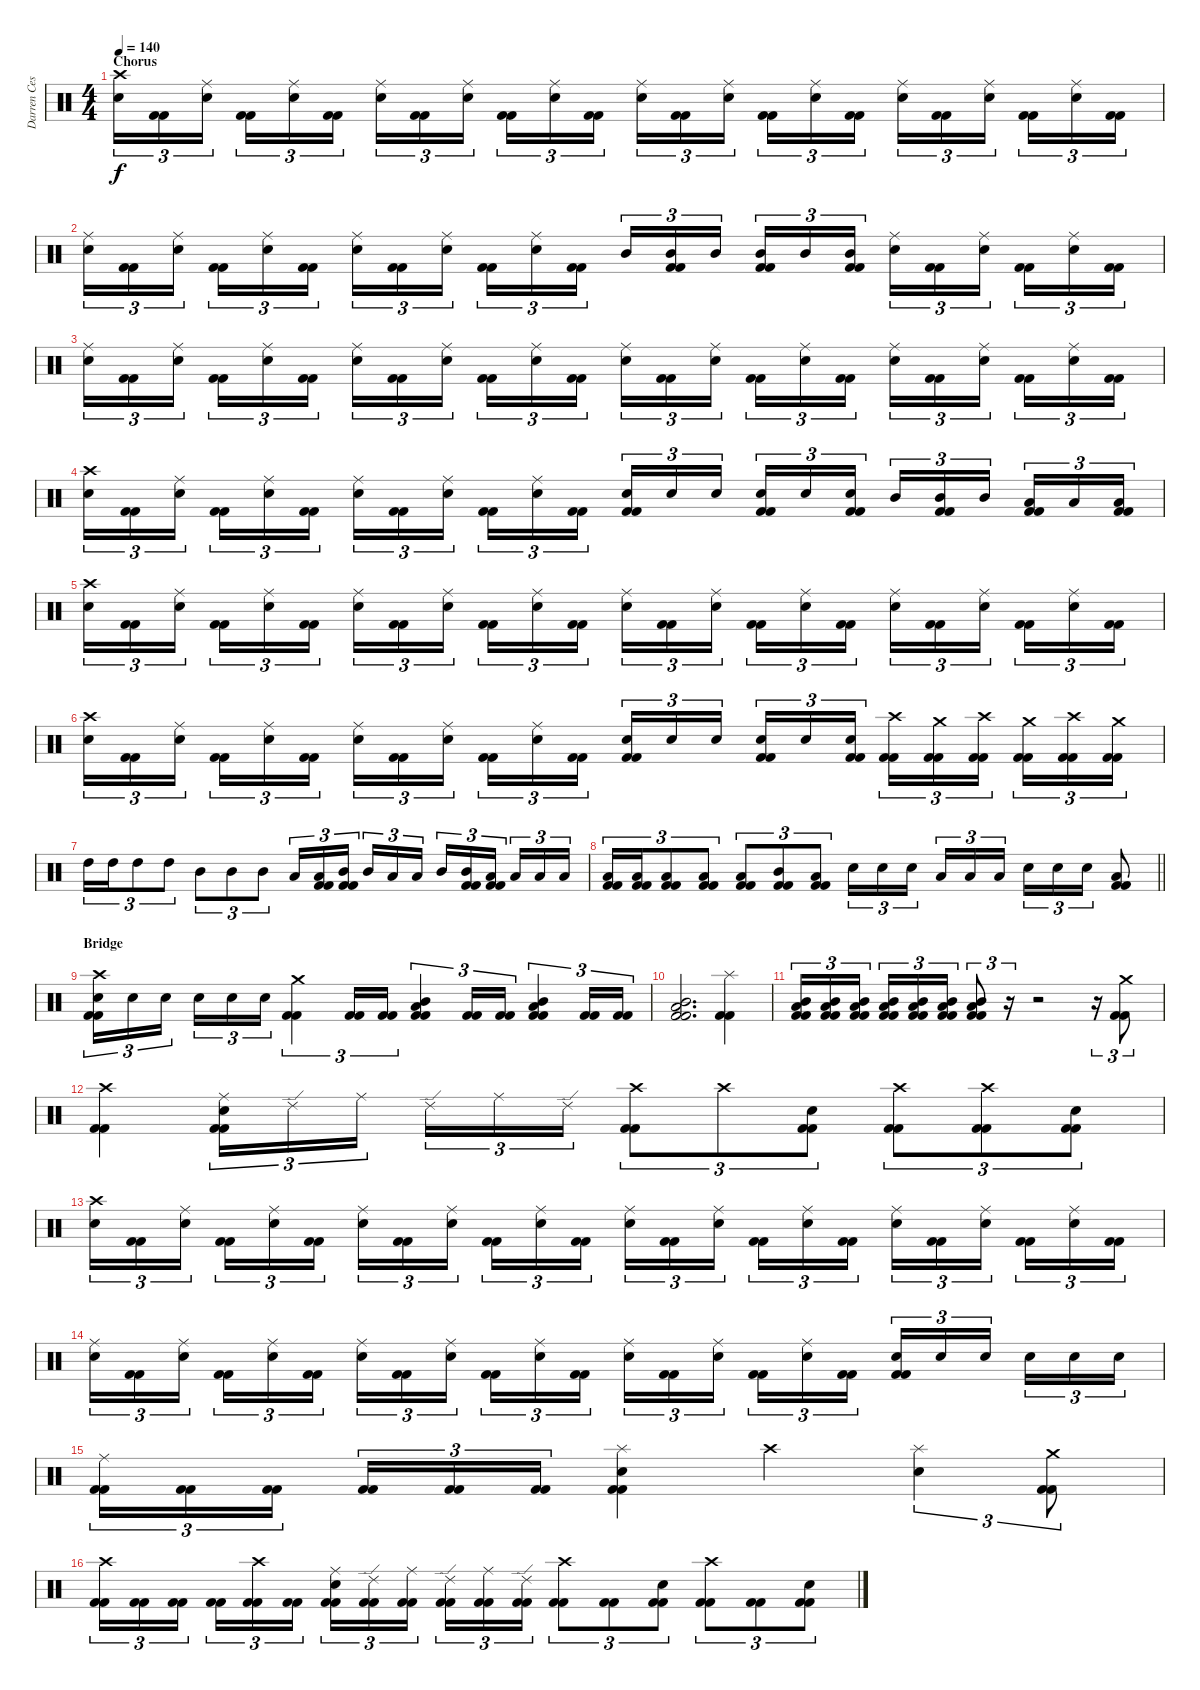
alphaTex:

\track ("Darren Cesca" "Darren Ces") {instrument percussion}
\staff {score}
\articulation defaults
\ts (4 4)
\section ("" "Chorus")
\tempo 140
\clef neutral
\ks c
("Crash high (hit)" "Electric Snare (hit)").16{tu (3 2) dy f} ("Kick (hit) 2" "Kick (hit) 2").16{tu (3 2)} ("Ride (middle)" "Electric Snare (hit)").16{tu (3 2) beam splitsecondary} ("Kick (hit) 2" "Kick (hit) 2").16{tu (3 2)} ("Ride (middle)" "Electric Snare (hit)").16{tu (3 2)} ("Kick (hit) 2" "Kick (hit) 2").16{tu (3 2)} ("Ride (middle)" "Electric Snare (hit)").16{tu (3 2)} ("Kick (hit) 2" "Kick (hit) 2").16{tu (3 2)} ("Ride (middle)" "Electric Snare (hit)").16{tu (3 2) beam splitsecondary} ("Kick (hit) 2" "Kick (hit) 2").16{tu (3 2)} ("Ride (middle)" "Electric Snare (hit)").16{tu (3 2)} ("Kick (hit) 2" "Kick (hit) 2").16{tu (3 2)} ("Ride (middle)" "Electric Snare (hit)").16{tu (3 2)} ("Kick (hit) 2" "Kick (hit) 2").16{tu (3 2)} ("Ride (middle)" "Electric Snare (hit)").16{tu (3 2) beam splitsecondary} ("Kick (hit) 2" "Kick (hit) 2").16{tu (3 2)} ("Ride (middle)" "Electric Snare (hit)").16{tu (3 2)} ("Kick (hit) 2" "Kick (hit) 2").16{tu (3 2)} ("Ride (middle)" "Electric Snare (hit)").16{tu (3 2)} ("Kick (hit) 2" "Kick (hit) 2").16{tu (3 2)} ("Ride (middle)" "Electric Snare (hit)").16{tu (3 2) beam splitsecondary} ("Kick (hit) 2" "Kick (hit) 2").16{tu (3 2)} ("Ride (middle)" "Electric Snare (hit)").16{tu (3 2)} ("Kick (hit) 2" "Kick (hit) 2").16{tu (3 2)} |
("Ride (middle)" "Electric Snare (hit)").16{tu (3 2)} ("Kick (hit) 2" "Kick (hit) 2").16{tu (3 2)} ("Ride (middle)" "Electric Snare (hit)").16{tu (3 2) beam splitsecondary} ("Kick (hit) 2" "Kick (hit) 2").16{tu (3 2)} ("Ride (middle)" "Electric Snare (hit)").16{tu (3 2)} ("Kick (hit) 2" "Kick (hit) 2").16{tu (3 2)} ("Ride (middle)" "Electric Snare (hit)").16{tu (3 2)} ("Kick (hit) 2" "Kick (hit) 2").16{tu (3 2)} ("Ride (middle)" "Electric Snare (hit)").16{tu (3 2) beam splitsecondary} ("Kick (hit) 2" "Kick (hit) 2").16{tu (3 2)} ("Ride (middle)" "Electric Snare (hit)").16{tu (3 2)} ("Kick (hit) 2" "Kick (hit) 2").16{tu (3 2)} "Mid Tom (hit)".16{tu (3 2)} ("Mid Tom (hit)" "Kick (hit) 2" "Kick (hit) 2").16{tu (3 2)} "Mid Tom (hit)".16{tu (3 2) beam splitsecondary} ("Mid Tom (hit)" "Kick (hit) 2" "Kick (hit) 2").16{tu (3 2)} "Mid Tom (hit)".16{tu (3 2)} ("Mid Tom (hit)" "Kick (hit) 2" "Kick (hit) 2").16{tu (3 2)} ("Ride (middle)" "Electric Snare (hit)").16{tu (3 2)} ("Kick (hit) 2" "Kick (hit) 2").16{tu (3 2)} ("Ride (middle)" "Electric Snare (hit)").16{tu (3 2) beam splitsecondary} ("Kick (hit) 2" "Kick (hit) 2").16{tu (3 2)} ("Ride (middle)" "Electric Snare (hit)").16{tu (3 2)} ("Kick (hit) 2" "Kick (hit) 2").16{tu (3 2)} |
("Ride (middle)" "Electric Snare (hit)").16{tu (3 2)} ("Kick (hit) 2" "Kick (hit) 2").16{tu (3 2)} ("Ride (middle)" "Electric Snare (hit)").16{tu (3 2) beam splitsecondary} ("Kick (hit) 2" "Kick (hit) 2").16{tu (3 2)} ("Ride (middle)" "Electric Snare (hit)").16{tu (3 2)} ("Kick (hit) 2" "Kick (hit) 2").16{tu (3 2)} ("Ride (middle)" "Electric Snare (hit)").16{tu (3 2)} ("Kick (hit) 2" "Kick (hit) 2").16{tu (3 2)} ("Ride (middle)" "Electric Snare (hit)").16{tu (3 2) beam splitsecondary} ("Kick (hit) 2" "Kick (hit) 2").16{tu (3 2)} ("Ride (middle)" "Electric Snare (hit)").16{tu (3 2)} ("Kick (hit) 2" "Kick (hit) 2").16{tu (3 2)} ("Ride (middle)" "Electric Snare (hit)").16{tu (3 2)} ("Kick (hit) 2" "Kick (hit) 2").16{tu (3 2)} ("Ride (middle)" "Electric Snare (hit)").16{tu (3 2) beam splitsecondary} ("Kick (hit) 2" "Kick (hit) 2").16{tu (3 2)} ("Ride (middle)" "Electric Snare (hit)").16{tu (3 2)} ("Kick (hit) 2" "Kick (hit) 2").16{tu (3 2)} ("Ride (middle)" "Electric Snare (hit)").16{tu (3 2)} ("Kick (hit) 2" "Kick (hit) 2").16{tu (3 2)} ("Ride (middle)" "Electric Snare (hit)").16{tu (3 2) beam splitsecondary} ("Kick (hit) 2" "Kick (hit) 2").16{tu (3 2)} ("Ride (middle)" "Electric Snare (hit)").16{tu (3 2)} ("Kick (hit) 2" "Kick (hit) 2").16{tu (3 2)} |
("Crash high (hit)" "Electric Snare (hit)").16{tu (3 2)} ("Kick (hit) 2" "Kick (hit) 2").16{tu (3 2)} ("Ride (middle)" "Electric Snare (hit)").16{tu (3 2) beam splitsecondary} ("Kick (hit) 2" "Kick (hit) 2").16{tu (3 2)} ("Ride (middle)" "Electric Snare (hit)").16{tu (3 2)} ("Kick (hit) 2" "Kick (hit) 2").16{tu (3 2)} ("Ride (middle)" "Electric Snare (hit)").16{tu (3 2)} ("Kick (hit) 2" "Kick (hit) 2").16{tu (3 2)} ("Ride (middle)" "Electric Snare (hit)").16{tu (3 2) beam splitsecondary} ("Kick (hit) 2" "Kick (hit) 2").16{tu (3 2)} ("Ride (middle)" "Electric Snare (hit)").16{tu (3 2)} ("Kick (hit) 2" "Kick (hit) 2").16{tu (3 2)} ("Electric Snare (hit)" "Kick (hit) 2" "Kick (hit) 2").16{tu (3 2)} "Electric Snare (hit)".16{tu (3 2)} "Electric Snare (hit)".16{tu (3 2) beam splitsecondary} ("Electric Snare (hit)" "Kick (hit) 2" "Kick (hit) 2").16{tu (3 2)} "Electric Snare (hit)".16{tu (3 2)} ("Electric Snare (hit)" "Kick (hit) 2" "Kick (hit) 2").16{tu (3 2)} "Mid Tom (hit)".16{tu (3 2)} ("Mid Tom (hit)" "Kick (hit) 2" "Kick (hit) 2").16{tu (3 2)} "Mid Tom (hit)".16{tu (3 2) beam splitsecondary} ("Low Tom (hit)" "Kick (hit) 2" "Kick (hit) 2").16{tu (3 2)} "Low Tom (hit)".16{tu (3 2)} ("Low Tom (hit)" "Kick (hit) 2" "Kick (hit) 2").16{tu (3 2)} |
("Crash high (hit)" "Electric Snare (hit)").16{tu (3 2)} ("Kick (hit) 2" "Kick (hit) 2").16{tu (3 2)} ("Ride (middle)" "Electric Snare (hit)").16{tu (3 2) beam splitsecondary} ("Kick (hit) 2" "Kick (hit) 2").16{tu (3 2)} ("Ride (middle)" "Electric Snare (hit)").16{tu (3 2)} ("Kick (hit) 2" "Kick (hit) 2").16{tu (3 2)} ("Ride (middle)" "Electric Snare (hit)").16{tu (3 2)} ("Kick (hit) 2" "Kick (hit) 2").16{tu (3 2)} ("Ride (middle)" "Electric Snare (hit)").16{tu (3 2) beam splitsecondary} ("Kick (hit) 2" "Kick (hit) 2").16{tu (3 2)} ("Ride (middle)" "Electric Snare (hit)").16{tu (3 2)} ("Kick (hit) 2" "Kick (hit) 2").16{tu (3 2)} ("Ride (middle)" "Electric Snare (hit)").16{tu (3 2)} ("Kick (hit) 2" "Kick (hit) 2").16{tu (3 2)} ("Ride (middle)" "Electric Snare (hit)").16{tu (3 2) beam splitsecondary} ("Kick (hit) 2" "Kick (hit) 2").16{tu (3 2)} ("Ride (middle)" "Electric Snare (hit)").16{tu (3 2)} ("Kick (hit) 2" "Kick (hit) 2").16{tu (3 2)} ("Ride (middle)" "Electric Snare (hit)").16{tu (3 2)} ("Kick (hit) 2" "Kick (hit) 2").16{tu (3 2)} ("Ride (middle)" "Electric Snare (hit)").16{tu (3 2) beam splitsecondary} ("Kick (hit) 2" "Kick (hit) 2").16{tu (3 2)} ("Ride (middle)" "Electric Snare (hit)").16{tu (3 2)} ("Kick (hit) 2" "Kick (hit) 2").16{tu (3 2)} |
("Crash high (hit)" "Electric Snare (hit)").16{tu (3 2)} ("Kick (hit) 2" "Kick (hit) 2").16{tu (3 2)} ("Ride (middle)" "Electric Snare (hit)").16{tu (3 2) beam splitsecondary} ("Kick (hit) 2" "Kick (hit) 2").16{tu (3 2)} ("Ride (middle)" "Electric Snare (hit)").16{tu (3 2)} ("Kick (hit) 2" "Kick (hit) 2").16{tu (3 2)} ("Ride (middle)" "Electric Snare (hit)").16{tu (3 2)} ("Kick (hit) 2" "Kick (hit) 2").16{tu (3 2)} ("Ride (middle)" "Electric Snare (hit)").16{tu (3 2) beam splitsecondary} ("Kick (hit) 2" "Kick (hit) 2").16{tu (3 2)} ("Ride (middle)" "Electric Snare (hit)").16{tu (3 2)} ("Kick (hit) 2" "Kick (hit) 2").16{tu (3 2)} ("Electric Snare (hit)" "Kick (hit) 2" "Kick (hit) 2").16{tu (3 2)} "Electric Snare (hit)".16{tu (3 2)} "Electric Snare (hit)".16{tu (3 2) beam splitsecondary} ("Electric Snare (hit)" "Kick (hit) 2" "Kick (hit) 2").16{tu (3 2)} "Electric Snare (hit)".16{tu (3 2)} ("Electric Snare (hit)" "Kick (hit) 2" "Kick (hit) 2").16{tu (3 2)} ("Crash high (hit)" "Kick (hit) 2" "Kick (hit) 2").16{tu (3 2)} ("Crash medium (hit)" "Kick (hit) 2" "Kick (hit) 2").16{tu (3 2)} ("Crash high (hit)" "Kick (hit) 2" "Kick (hit) 2").16{tu (3 2) beam splitsecondary} ("Crash medium (hit)" "Kick (hit) 2" "Kick (hit) 2").16{tu (3 2)} ("Crash high (hit)" "Kick (hit) 2" "Kick (hit) 2").16{tu (3 2)} ("Crash medium (hit)" "Kick (hit) 2" "Kick (hit) 2").16{tu (3 2)} |
"High Tom (hit)".16{tu (3 2)} "High Tom (hit)".16{tu (3 2)} "High Tom (hit)".8{tu (3 2)} "High Tom (hit)".8{tu (3 2)} "Mid Tom (hit)".8{tu (3 2)} "Mid Tom (hit)".8{tu (3 2)} "Mid Tom (hit)".8{tu (3 2)} "Low Tom (hit)".16{tu (3 2)} ("Low Tom (hit)" "Kick (hit) 2" "Kick (hit) 2").16{tu (3 2)} ("Mid Tom (hit)" "Kick (hit) 2" "Kick (hit) 2").16{tu (3 2) beam splitsecondary} "Mid Tom (hit)".16{tu (3 2)} "Low Tom (hit)".16{tu (3 2)} "Low Tom (hit)".16{tu (3 2)} "Mid Tom (hit)".16{tu (3 2)} ("Mid Tom (hit)" "Kick (hit) 2" "Kick (hit) 2").16{tu (3 2)} ("Low Tom (hit)" "Kick (hit) 2" "Kick (hit) 2").16{tu (3 2) beam splitsecondary} "Low Tom (hit)".16{tu (3 2)} "Low Tom (hit)".16{tu (3 2)} "Low Tom (hit)".16{tu (3 2)} |
\barLineRight lightlight
("Low Tom (hit)" "Kick (hit) 2" "Kick (hit) 2").16{tu (3 2)} ("Low Tom (hit)" "Kick (hit) 2" "Kick (hit) 2").16{tu (3 2)} ("Low Tom (hit)" "Kick (hit) 2" "Kick (hit) 2").8{tu (3 2)} ("Low Tom (hit)" "Kick (hit) 2" "Kick (hit) 2").8{tu (3 2)} ("Low Tom (hit)" "Kick (hit) 2" "Kick (hit) 2").8{tu (3 2)} ("Mid Tom (hit)" "Kick (hit) 2" "Kick (hit) 2").8{tu (3 2)} ("Low Tom (hit)" "Kick (hit) 2" "Kick (hit) 2").8{tu (3 2)} "Electric Snare (hit)".16{tu (3 2)} "Electric Snare (hit)".16{tu (3 2)} "Electric Snare (hit)".16{tu (3 2) beam splitsecondary} "Low Tom (hit)".16{tu (3 2)} "Low Tom (hit)".16{tu (3 2)} "Low Tom (hit)".16{tu (3 2)} "Electric Snare (hit)".16{tu (3 2)} "Electric Snare (hit)".16{tu (3 2)} "Electric Snare (hit)".16{tu (3 2)} ("Low Tom (hit)" "Kick (hit) 2" "Kick (hit) 2").8 |
\section ("" "Bridge")
("Crash high (hit)" "Electric Snare (hit)" "Kick (hit) 2" "Kick (hit) 2").16{tu (3 2)} "Electric Snare (hit)".16{tu (3 2)} "Electric Snare (hit)".16{tu (3 2) beam splitsecondary} "Electric Snare (hit)".16{tu (3 2)} "Electric Snare (hit)".16{tu (3 2)} "Electric Snare (hit)".16{tu (3 2)} ("Crash medium (hit)" "Kick (hit) 2" "Kick (hit) 2").4{tu (3 2)} ("Kick (hit) 2" "Kick (hit) 2").16{tu (3 2)} ("Kick (hit) 2" "Kick (hit) 2").16{tu (3 2)} ("Low Tom (hit)" "Mid Tom (hit)" "Kick (hit) 2" "Kick (hit) 2").4{tu (3 2)} ("Kick (hit) 2" "Kick (hit) 2").16{tu (3 2)} ("Kick (hit) 2" "Kick (hit) 2").16{tu (3 2)} ("Low Tom (hit)" "Mid Tom (hit)" "Kick (hit) 2" "Kick (hit) 2").4{tu (3 2)} ("Kick (hit) 2" "Kick (hit) 2").16{tu (3 2)} ("Kick (hit) 2" "Kick (hit) 2").16{tu (3 2)} |
("Low Tom (hit)" "Mid Tom (hit)" "Kick (hit) 2" "Kick (hit) 2").2{d} ("Splash (hit)" "Kick (hit) 2" "Kick (hit) 2").4 |
("Low Tom (hit)" "Mid Tom (hit)" "Kick (hit) 2" "Kick (hit) 2").16{tu (3 2)} ("Low Tom (hit)" "Mid Tom (hit)" "Kick (hit) 2" "Kick (hit) 2").16{tu (3 2)} ("Low Tom (hit)" "Mid Tom (hit)" "Kick (hit) 2" "Kick (hit) 2").16{tu (3 2) beam splitsecondary} ("Low Tom (hit)" "Mid Tom (hit)" "Kick (hit) 2" "Kick (hit) 2").16{tu (3 2)} ("Low Tom (hit)" "Mid Tom (hit)" "Kick (hit) 2" "Kick (hit) 2").16{tu (3 2)} ("Low Tom (hit)" "Mid Tom (hit)" "Kick (hit) 2" "Kick (hit) 2").16{tu (3 2)} ("Low Tom (hit)" "Mid Tom (hit)" "Kick (hit) 2" "Kick (hit) 2").8{tu (3 2)} r.16{tu (3 2)} r.2 r.16{tu (3 2)} ("Crash medium (hit)" "Kick (hit) 2" "Kick (hit) 2").8{tu (3 2)} |
("Crash high (hit)" "Kick (hit) 2" "Kick (hit) 2").4 ("Ride (middle)" "Electric Snare (hit)" "Kick (hit) 2" "Kick (hit) 2").16{tu (3 2)} "Ride (edge) 2".16{tu (3 2)} "Ride (middle)".16{tu (3 2) beam splitsecondary} "Ride (edge) 2".16{tu (3 2)} "Ride (middle)".16{tu (3 2)} "Ride (edge) 2".16{tu (3 2)} ("Crash high (hit)" "Kick (hit) 2" "Kick (hit) 2").8{tu (3 2)} "Crash high (hit)".8{tu (3 2)} ("Electric Snare (hit)" "Kick (hit) 2" "Kick (hit) 2").8{tu (3 2)} ("Crash high (hit)" "Kick (hit) 2" "Kick (hit) 2").8{tu (3 2)} ("Crash high (hit)" "Kick (hit) 2" "Kick (hit) 2").8{tu (3 2)} ("Electric Snare (hit)" "Kick (hit) 2" "Kick (hit) 2").8{tu (3 2)} |
("Crash high (hit)" "Electric Snare (hit)").16{tu (3 2)} ("Kick (hit) 2" "Kick (hit) 2").16{tu (3 2)} ("Ride (middle)" "Electric Snare (hit)").16{tu (3 2) beam splitsecondary} ("Kick (hit) 2" "Kick (hit) 2").16{tu (3 2)} ("Ride (middle)" "Electric Snare (hit)").16{tu (3 2)} ("Kick (hit) 2" "Kick (hit) 2").16{tu (3 2)} ("Ride (middle)" "Electric Snare (hit)").16{tu (3 2)} ("Kick (hit) 2" "Kick (hit) 2").16{tu (3 2)} ("Ride (middle)" "Electric Snare (hit)").16{tu (3 2) beam splitsecondary} ("Kick (hit) 2" "Kick (hit) 2").16{tu (3 2)} ("Ride (middle)" "Electric Snare (hit)").16{tu (3 2)} ("Kick (hit) 2" "Kick (hit) 2").16{tu (3 2)} ("Ride (middle)" "Electric Snare (hit)").16{tu (3 2)} ("Kick (hit) 2" "Kick (hit) 2").16{tu (3 2)} ("Ride (middle)" "Electric Snare (hit)").16{tu (3 2) beam splitsecondary} ("Kick (hit) 2" "Kick (hit) 2").16{tu (3 2)} ("Ride (middle)" "Electric Snare (hit)").16{tu (3 2)} ("Kick (hit) 2" "Kick (hit) 2").16{tu (3 2)} ("Ride (middle)" "Electric Snare (hit)").16{tu (3 2)} ("Kick (hit) 2" "Kick (hit) 2").16{tu (3 2)} ("Ride (middle)" "Electric Snare (hit)").16{tu (3 2) beam splitsecondary} ("Kick (hit) 2" "Kick (hit) 2").16{tu (3 2)} ("Ride (middle)" "Electric Snare (hit)").16{tu (3 2)} ("Kick (hit) 2" "Kick (hit) 2").16{tu (3 2)} |
("Ride (middle)" "Electric Snare (hit)").16{tu (3 2)} ("Kick (hit) 2" "Kick (hit) 2").16{tu (3 2)} ("Ride (middle)" "Electric Snare (hit)").16{tu (3 2) beam splitsecondary} ("Kick (hit) 2" "Kick (hit) 2").16{tu (3 2)} ("Ride (middle)" "Electric Snare (hit)").16{tu (3 2)} ("Kick (hit) 2" "Kick (hit) 2").16{tu (3 2)} ("Ride (middle)" "Electric Snare (hit)").16{tu (3 2)} ("Kick (hit) 2" "Kick (hit) 2").16{tu (3 2)} ("Ride (middle)" "Electric Snare (hit)").16{tu (3 2) beam splitsecondary} ("Kick (hit) 2" "Kick (hit) 2").16{tu (3 2)} ("Ride (middle)" "Electric Snare (hit)").16{tu (3 2)} ("Kick (hit) 2" "Kick (hit) 2").16{tu (3 2)} ("Ride (middle)" "Electric Snare (hit)").16{tu (3 2)} ("Kick (hit) 2" "Kick (hit) 2").16{tu (3 2)} ("Ride (middle)" "Electric Snare (hit)").16{tu (3 2) beam splitsecondary} ("Kick (hit) 2" "Kick (hit) 2").16{tu (3 2)} ("Ride (middle)" "Electric Snare (hit)").16{tu (3 2)} ("Kick (hit) 2" "Kick (hit) 2").16{tu (3 2)} ("Electric Snare (hit)" "Kick (hit) 2" "Kick (hit) 2").16{tu (3 2)} "Electric Snare (hit)".16{tu (3 2)} "Electric Snare (hit)".16{tu (3 2) beam splitsecondary} "Electric Snare (hit)".16{tu (3 2)} "Electric Snare (hit)".16{tu (3 2)} "Electric Snare (hit)".16{tu (3 2)} |
("Ride (middle)" "Kick (hit) 2" "Kick (hit) 2").16{tu (3 2)} ("Kick (hit) 2" "Kick (hit) 2").16{tu (3 2)} ("Kick (hit) 2" "Kick (hit) 2").16{tu (3 2) beam splitsecondary} ("Kick (hit) 2" "Kick (hit) 2").16{tu (3 2)} ("Kick (hit) 2" "Kick (hit) 2").16{tu (3 2)} ("Kick (hit) 2" "Kick (hit) 2").16{tu (3 2)} ("Splash (hit)" "Electric Snare (hit)" "Kick (hit) 2" "Kick (hit) 2").4 "Crash high (hit)".4 ("Splash (hit)" "Electric Snare (hit)").4{tu (3 2)} ("Crash medium (hit)" "Kick (hit) 2" "Kick (hit) 2").8{tu (3 2)} |
("Crash high (hit)" "Kick (hit) 2" "Kick (hit) 2").16{tu (3 2)} ("Kick (hit) 2" "Kick (hit) 2").16{tu (3 2)} ("Kick (hit) 2" "Kick (hit) 2").16{tu (3 2) beam splitsecondary} ("Kick (hit) 2" "Kick (hit) 2").16{tu (3 2)} ("Crash high (hit)" "Kick (hit) 2" "Kick (hit) 2").16{tu (3 2)} ("Kick (hit) 2" "Kick (hit) 2").16{tu (3 2)} ("Ride (middle)" "Electric Snare (hit)" "Kick (hit) 2" "Kick (hit) 2").16{tu (3 2)} ("Ride (edge) 2" "Kick (hit) 2" "Kick (hit) 2").16{tu (3 2)} ("Ride (middle)" "Kick (hit) 2" "Kick (hit) 2").16{tu (3 2) beam splitsecondary} ("Ride (edge) 2" "Kick (hit) 2" "Kick (hit) 2").16{tu (3 2)} ("Ride (middle)" "Kick (hit) 2" "Kick (hit) 2").16{tu (3 2)} ("Ride (edge) 2" "Kick (hit) 2" "Kick (hit) 2").16{tu (3 2)} ("Crash high (hit)" "Kick (hit) 2" "Kick (hit) 2").8{tu (3 2)} ("Kick (hit) 2" "Kick (hit) 2").8{tu (3 2)} ("Electric Snare (hit)" "Kick (hit) 2" "Kick (hit) 2").8{tu (3 2)} ("Crash high (hit)" "Kick (hit) 2" "Kick (hit) 2").8{tu (3 2)} ("Kick (hit) 2" "Kick (hit) 2").8{tu (3 2)} ("Electric Snare (hit)" "Kick (hit) 2" "Kick (hit) 2").8{tu (3 2)}
